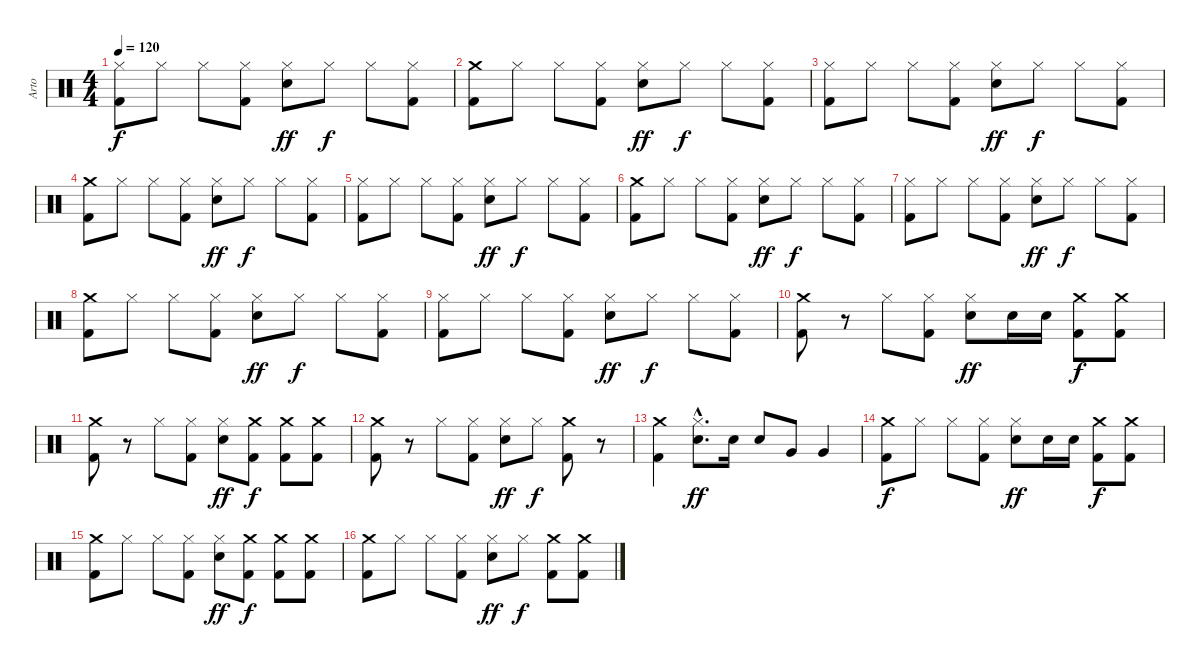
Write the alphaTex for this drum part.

\track ("Arto" "Arto") {instrument percussion}
\staff {score}
\articulation defaults
\ts (4 4)
\tempo 120
\clef neutral
\ks c
("Hi-Hat (closed)" "Kick (hit) 2").8{dy f} "Hi-Hat (closed)".8 "Hi-Hat (closed)".8 ("Hi-Hat (closed)" "Kick (hit) 2").8 ("Hi-Hat (closed)" "Snare (hit) 2").8{dy ff} "Hi-Hat (closed)".8{dy f} "Hi-Hat (closed)".8 ("Hi-Hat (closed)" "Kick (hit) 2").8 |
("Crash medium (hit)" "Kick (hit) 2").8 "Hi-Hat (closed)".8 "Hi-Hat (closed)".8 ("Hi-Hat (closed)" "Kick (hit) 2").8 ("Hi-Hat (closed)" "Snare (hit) 2").8{dy ff} "Hi-Hat (closed)".8{dy f} "Hi-Hat (closed)".8 ("Hi-Hat (closed)" "Kick (hit) 2").8 |
("Hi-Hat (closed)" "Kick (hit) 2").8 "Hi-Hat (closed)".8 "Hi-Hat (closed)".8 ("Hi-Hat (closed)" "Kick (hit) 2").8 ("Hi-Hat (closed)" "Snare (hit) 2").8{dy ff} "Hi-Hat (closed)".8{dy f} "Hi-Hat (closed)".8 ("Hi-Hat (closed)" "Kick (hit) 2").8 |
("Crash medium (hit)" "Kick (hit) 2").8 "Hi-Hat (closed)".8 "Hi-Hat (closed)".8 ("Hi-Hat (closed)" "Kick (hit) 2").8 ("Hi-Hat (closed)" "Snare (hit) 2").8{dy ff} "Hi-Hat (closed)".8{dy f} "Hi-Hat (closed)".8 ("Hi-Hat (closed)" "Kick (hit) 2").8 |
("Hi-Hat (closed)" "Kick (hit) 2").8 "Hi-Hat (closed)".8 "Hi-Hat (closed)".8 ("Hi-Hat (closed)" "Kick (hit) 2").8 ("Hi-Hat (closed)" "Snare (hit) 2").8{dy ff} "Hi-Hat (closed)".8{dy f} "Hi-Hat (closed)".8 ("Hi-Hat (closed)" "Kick (hit) 2").8 |
("Crash medium (hit)" "Kick (hit) 2").8 "Hi-Hat (closed)".8 "Hi-Hat (closed)".8 ("Hi-Hat (closed)" "Kick (hit) 2").8 ("Hi-Hat (closed)" "Snare (hit) 2").8{dy ff} "Hi-Hat (closed)".8{dy f} "Hi-Hat (closed)".8 ("Hi-Hat (closed)" "Kick (hit) 2").8 |
("Hi-Hat (closed)" "Kick (hit) 2").8 "Hi-Hat (closed)".8 "Hi-Hat (closed)".8 ("Hi-Hat (closed)" "Kick (hit) 2").8 ("Hi-Hat (closed)" "Snare (hit) 2").8{dy ff} "Hi-Hat (closed)".8{dy f} "Hi-Hat (closed)".8 ("Hi-Hat (closed)" "Kick (hit) 2").8 |
("Crash medium (hit)" "Kick (hit) 2").8 "Hi-Hat (closed)".8 "Hi-Hat (closed)".8 ("Hi-Hat (closed)" "Kick (hit) 2").8 ("Hi-Hat (closed)" "Snare (hit) 2").8{dy ff} "Hi-Hat (closed)".8{dy f} "Hi-Hat (closed)".8 ("Hi-Hat (closed)" "Kick (hit) 2").8 |
("Hi-Hat (closed)" "Kick (hit) 2").8 "Hi-Hat (closed)".8 "Hi-Hat (closed)".8 ("Hi-Hat (closed)" "Kick (hit) 2").8 ("Hi-Hat (closed)" "Snare (hit) 2").8{dy ff} "Hi-Hat (closed)".8{dy f} "Hi-Hat (closed)".8 ("Hi-Hat (closed)" "Kick (hit) 2").8 |
("Crash medium (hit)" "Kick (hit) 2").8 r.8 "Hi-Hat (closed)".8 ("Hi-Hat (closed)" "Kick (hit) 2").8 ("Hi-Hat (closed)" "Snare (hit) 2").8{dy ff} "Snare (hit) 2".16 "Snare (hit) 2".16 ("Crash medium (hit)" "Kick (hit) 2").8{dy f} ("Crash medium (hit)" "Kick (hit) 2").8 |
("Crash medium (hit)" "Kick (hit) 2").8 r.8 "Hi-Hat (closed)".8 ("Hi-Hat (closed)" "Kick (hit) 2").8 ("Hi-Hat (closed)" "Snare (hit) 2").8{dy ff} ("Crash medium (hit)" "Kick (hit) 2").8{dy f} ("Crash medium (hit)" "Kick (hit) 2").8 ("Crash medium (hit)" "Kick (hit) 2").8 |
("Crash medium (hit)" "Kick (hit) 2").8 r.8 "Hi-Hat (closed)".8 ("Hi-Hat (closed)" "Kick (hit) 2").8 ("Hi-Hat (closed)" "Snare (hit) 2").8{dy ff} "Hi-Hat (closed)".8{dy f} ("Crash medium (hit)" "Kick (hit) 2").8 r.8 |
("Crash medium (hit)" "Kick (hit) 2").4 ("Hi-Hat (closed)"{hac} "Snare (hit) 2"{hac}).8{d dy ff} "Snare (hit) 2".16 "Snare (hit) 2".8 "Very Low Tom (hit)".8 "Very Low Tom (hit)".4 |
("Crash medium (hit)" "Kick (hit) 2").8{dy f} "Hi-Hat (closed)".8 "Hi-Hat (closed)".8 ("Hi-Hat (closed)" "Kick (hit) 2").8 ("Hi-Hat (closed)" "Snare (hit) 2").8{dy ff} "Snare (hit) 2".16 "Snare (hit) 2".16 ("Crash medium (hit)" "Kick (hit) 2").8{dy f} ("Crash medium (hit)" "Kick (hit) 2").8 |
("Crash medium (hit)" "Kick (hit) 2").8 "Hi-Hat (closed)".8 "Hi-Hat (closed)".8 ("Hi-Hat (closed)" "Kick (hit) 2").8 ("Hi-Hat (closed)" "Snare (hit) 2").8{dy ff} ("Crash medium (hit)" "Kick (hit) 2").8{dy f} ("Crash medium (hit)" "Kick (hit) 2").8 ("Crash medium (hit)" "Kick (hit) 2").8 |
("Crash medium (hit)" "Kick (hit) 2").8 "Hi-Hat (closed)".8 "Hi-Hat (closed)".8 ("Hi-Hat (closed)" "Kick (hit) 2").8 ("Hi-Hat (closed)" "Snare (hit) 2").8{dy ff} "Hi-Hat (closed)".8{dy f} ("Crash medium (hit)" "Kick (hit) 2").8 ("Crash medium (hit)" "Kick (hit) 2").8
